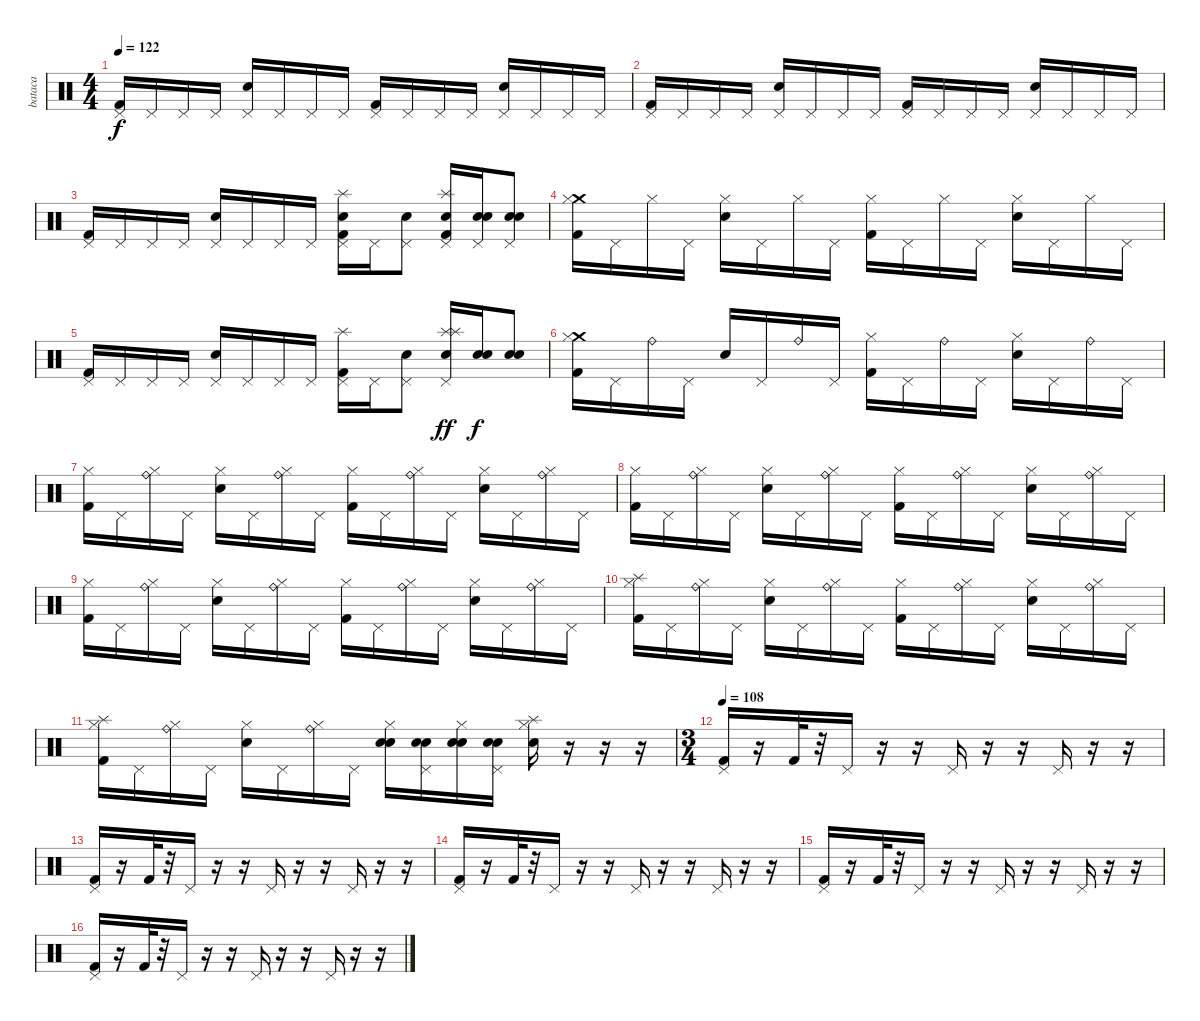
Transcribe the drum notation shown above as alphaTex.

\track ("bataca" "bataca") {instrument percussion}
\staff {score}
\articulation defaults
\ts (4 4)
\tempo 122
\clef neutral
\ks c
("Kick (hit) 2" "Pedal Hi-Hat (hit)").16{dy f} "Pedal Hi-Hat (hit)".16 "Pedal Hi-Hat (hit)".16 "Pedal Hi-Hat (hit)".16 ("Electric Snare (hit)" "Pedal Hi-Hat (hit)").16 "Pedal Hi-Hat (hit)".16 "Pedal Hi-Hat (hit)".16 "Pedal Hi-Hat (hit)".16 ("Kick (hit) 2" "Pedal Hi-Hat (hit)").16 "Pedal Hi-Hat (hit)".16 "Pedal Hi-Hat (hit)".16 "Pedal Hi-Hat (hit)".16 ("Electric Snare (hit)" "Pedal Hi-Hat (hit)").16 "Pedal Hi-Hat (hit)".16 "Pedal Hi-Hat (hit)".16 "Pedal Hi-Hat (hit)".16 |
("Kick (hit) 2" "Pedal Hi-Hat (hit)").16 "Pedal Hi-Hat (hit)".16 "Pedal Hi-Hat (hit)".16 "Pedal Hi-Hat (hit)".16 ("Electric Snare (hit)" "Pedal Hi-Hat (hit)").16 "Pedal Hi-Hat (hit)".16 "Pedal Hi-Hat (hit)".16 "Pedal Hi-Hat (hit)".16 ("Kick (hit) 2" "Pedal Hi-Hat (hit)").16 "Pedal Hi-Hat (hit)".16 "Pedal Hi-Hat (hit)".16 "Pedal Hi-Hat (hit)".16 ("Electric Snare (hit)" "Pedal Hi-Hat (hit)").16 "Pedal Hi-Hat (hit)".16 "Pedal Hi-Hat (hit)".16 "Pedal Hi-Hat (hit)".16 |
("Kick (hit) 2" "Pedal Hi-Hat (hit)").16 "Pedal Hi-Hat (hit)".16 "Pedal Hi-Hat (hit)".16 "Pedal Hi-Hat (hit)".16 ("Electric Snare (hit)" "Pedal Hi-Hat (hit)").16 "Pedal Hi-Hat (hit)".16 "Pedal Hi-Hat (hit)".16 "Pedal Hi-Hat (hit)".16 ("Splash (hit)" "Kick (hit) 2" "Electric Snare (hit)" "Pedal Hi-Hat (hit)").16 "Pedal Hi-Hat (hit)".16 ("Snare (hit) 2" "Pedal Hi-Hat (hit)").8 ("Splash (hit)" "Snare (hit) 2" "Kick (hit) 2" "Pedal Hi-Hat (hit)").16 ("Snare (hit) 2" "Electric Snare (hit)" "Pedal Hi-Hat (hit)").16 ("Snare (hit) 2" "Electric Snare (hit)" "Pedal Hi-Hat (hit)").8 |
("Kick (hit) 2" "Crash medium (hit)" "Hi-Hat (closed)").16 "Pedal Hi-Hat (hit)".16 "Hi-Hat (closed)".16 "Pedal Hi-Hat (hit)".16 ("Electric Snare (hit)" "Hi-Hat (closed)").16 "Pedal Hi-Hat (hit)".16 "Hi-Hat (closed)".16 "Pedal Hi-Hat (hit)".16 ("Kick (hit) 2" "Hi-Hat (closed)").16 "Pedal Hi-Hat (hit)".16 "Hi-Hat (closed)".16 "Pedal Hi-Hat (hit)".16 ("Electric Snare (hit)" "Hi-Hat (closed)").16 "Pedal Hi-Hat (hit)".16 "Hi-Hat (closed)".16 "Pedal Hi-Hat (hit)".16 |
("Kick (hit) 2" "Pedal Hi-Hat (hit)").16 "Pedal Hi-Hat (hit)".16 "Pedal Hi-Hat (hit)".16 "Pedal Hi-Hat (hit)".16 ("Electric Snare (hit)" "Pedal Hi-Hat (hit)").16 "Pedal Hi-Hat (hit)".16 "Pedal Hi-Hat (hit)".16 "Pedal Hi-Hat (hit)".16 ("Splash (hit)" "Kick (hit) 2" "Pedal Hi-Hat (hit)").16 "Pedal Hi-Hat (hit)".16 ("Snare (hit) 2" "Pedal Hi-Hat (hit)").8 ("Splash (hit)" "Snare (hit) 2" "Splash (hit)" "Pedal Hi-Hat (hit)").16{dy ff} ("Snare (hit) 2" "Electric Snare (hit)").16{dy f} ("Snare (hit) 2" "Electric Snare (hit)").8 |
("Kick (hit) 2" "Crash medium (hit)" "Hi-Hat (closed)").16 "Pedal Hi-Hat (hit)".16 "Ride (bell)".16 "Pedal Hi-Hat (hit)".16 "Electric Snare (hit)".16 "Pedal Hi-Hat (hit)".16 "Ride (bell)".16 "Pedal Hi-Hat (hit)".16 ("Kick (hit) 2" "Hi-Hat (closed)").16 "Pedal Hi-Hat (hit)".16 "Ride (bell)".16 "Pedal Hi-Hat (hit)".16 ("Electric Snare (hit)" "Hi-Hat (closed)").16 "Pedal Hi-Hat (hit)".16 "Ride (bell)".16 "Pedal Hi-Hat (hit)".16 |
("Kick (hit) 2" "Hi-Hat (closed)").16 "Pedal Hi-Hat (hit)".16 ("Ride (bell)" "Hi-Hat (closed)").16 "Pedal Hi-Hat (hit)".16 ("Electric Snare (hit)" "Hi-Hat (closed)").16 "Pedal Hi-Hat (hit)".16 ("Ride (bell)" "Hi-Hat (closed)").16 "Pedal Hi-Hat (hit)".16 ("Kick (hit) 2" "Hi-Hat (closed)").16 "Pedal Hi-Hat (hit)".16 ("Ride (bell)" "Hi-Hat (closed)").16 "Pedal Hi-Hat (hit)".16 ("Electric Snare (hit)" "Hi-Hat (closed)").16 "Pedal Hi-Hat (hit)".16 ("Ride (bell)" "Hi-Hat (closed)").16 "Pedal Hi-Hat (hit)".16 |
("Kick (hit) 2" "Hi-Hat (closed)").16 "Pedal Hi-Hat (hit)".16 ("Ride (bell)" "Hi-Hat (closed)").16 "Pedal Hi-Hat (hit)".16 ("Electric Snare (hit)" "Hi-Hat (closed)").16 "Pedal Hi-Hat (hit)".16 ("Ride (bell)" "Hi-Hat (closed)").16 "Pedal Hi-Hat (hit)".16 ("Kick (hit) 2" "Hi-Hat (closed)").16 "Pedal Hi-Hat (hit)".16 ("Ride (bell)" "Hi-Hat (closed)").16 "Pedal Hi-Hat (hit)".16 ("Electric Snare (hit)" "Hi-Hat (closed)").16 "Pedal Hi-Hat (hit)".16 ("Ride (bell)" "Hi-Hat (closed)").16 "Pedal Hi-Hat (hit)".16 |
("Kick (hit) 2" "Hi-Hat (closed)").16 "Pedal Hi-Hat (hit)".16 ("Ride (bell)" "Hi-Hat (closed)").16 "Pedal Hi-Hat (hit)".16 ("Electric Snare (hit)" "Hi-Hat (closed)").16 "Pedal Hi-Hat (hit)".16 ("Ride (bell)" "Hi-Hat (closed)").16 "Pedal Hi-Hat (hit)".16 ("Kick (hit) 2" "Hi-Hat (closed)").16 "Pedal Hi-Hat (hit)".16 ("Ride (bell)" "Hi-Hat (closed)").16 "Pedal Hi-Hat (hit)".16 ("Electric Snare (hit)" "Hi-Hat (closed)").16 "Pedal Hi-Hat (hit)".16 ("Ride (bell)" "Hi-Hat (closed)").16 "Pedal Hi-Hat (hit)".16 |
("Kick (hit) 2" "Splash (hit)" "Hi-Hat (closed)").16 "Pedal Hi-Hat (hit)".16 ("Ride (bell)" "Hi-Hat (closed)").16 "Pedal Hi-Hat (hit)".16 ("Electric Snare (hit)" "Hi-Hat (closed)").16 "Pedal Hi-Hat (hit)".16 ("Ride (bell)" "Hi-Hat (closed)").16 "Pedal Hi-Hat (hit)".16 ("Kick (hit) 2" "Hi-Hat (closed)").16 "Pedal Hi-Hat (hit)".16 ("Ride (bell)" "Hi-Hat (closed)").16 "Pedal Hi-Hat (hit)".16 ("Electric Snare (hit)" "Hi-Hat (closed)").16 "Pedal Hi-Hat (hit)".16 ("Ride (bell)" "Hi-Hat (closed)").16 "Pedal Hi-Hat (hit)".16 |
("Kick (hit) 2" "Splash (hit)" "Hi-Hat (closed)").16 "Pedal Hi-Hat (hit)".16 ("Ride (bell)" "Hi-Hat (closed)").16 "Pedal Hi-Hat (hit)".16 ("Electric Snare (hit)" "Hi-Hat (closed)").16 "Pedal Hi-Hat (hit)".16 ("Ride (bell)" "Hi-Hat (closed)").16 "Pedal Hi-Hat (hit)".16 ("Snare (hit) 2" "Electric Snare (hit)" "Hi-Hat (closed)").16 ("Snare (hit) 2" "Electric Snare (hit)" "Pedal Hi-Hat (hit)").16 ("Snare (hit) 2" "Electric Snare (hit)" "Hi-Hat (closed)").16 ("Snare (hit) 2" "Electric Snare (hit)" "Pedal Hi-Hat (hit)").16 ("Splash (hit)" "Electric Snare (hit)" "Hi-Hat (closed)").16 r.16 r.16 r.16 |
\ts (3 4)
\tempo 108
("Kick (hit) 2" "Pedal Hi-Hat (hit)").16 r.16 "Kick (hit) 2".32 r.32 "Pedal Hi-Hat (hit)".16 r.16 r.16 "Pedal Hi-Hat (hit)".16 r.16 r.16 "Pedal Hi-Hat (hit)".16 r.16 r.16 |
("Kick (hit) 2" "Pedal Hi-Hat (hit)").16 r.16 "Kick (hit) 2".32 r.32 "Pedal Hi-Hat (hit)".16 r.16 r.16 "Pedal Hi-Hat (hit)".16 r.16 r.16 "Pedal Hi-Hat (hit)".16 r.16 r.16 |
("Kick (hit) 2" "Pedal Hi-Hat (hit)").16 r.16 "Kick (hit) 2".32 r.32 "Pedal Hi-Hat (hit)".16 r.16 r.16 "Pedal Hi-Hat (hit)".16 r.16 r.16 "Pedal Hi-Hat (hit)".16 r.16 r.16 |
("Kick (hit) 2" "Pedal Hi-Hat (hit)").16 r.16 "Kick (hit) 2".32 r.32 "Pedal Hi-Hat (hit)".16 r.16 r.16 "Pedal Hi-Hat (hit)".16 r.16 r.16 "Pedal Hi-Hat (hit)".16 r.16 r.16 |
("Kick (hit) 2" "Pedal Hi-Hat (hit)").16 r.16 "Kick (hit) 2".32 r.32 "Pedal Hi-Hat (hit)".16 r.16 r.16 "Pedal Hi-Hat (hit)".16 r.16 r.16 "Pedal Hi-Hat (hit)".16 r.16 r.16
